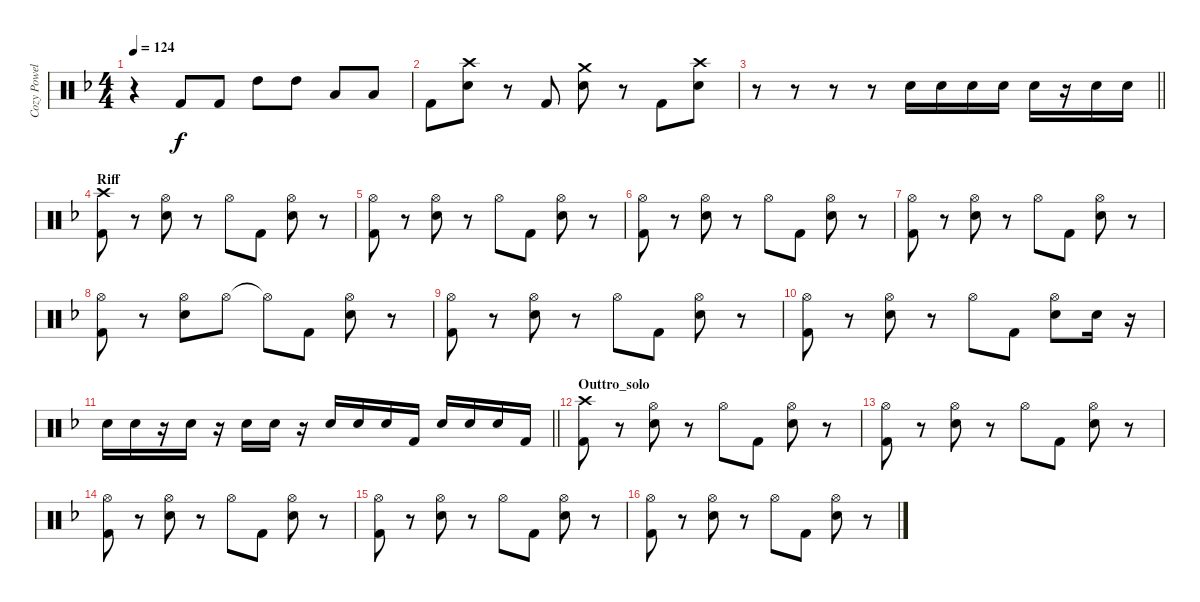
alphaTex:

\track ("Cozy Powell" "Cozy Powel") {instrument percussion}
\staff {score}
\articulation defaults
\ts (4 4)
\tempo 124
\clef neutral
\ks f
r.4{dy f} "Kick (hit) 2".8 "Kick (hit) 2".8 "High Tom (hit)".8 "High Tom (hit)".8 "Low Tom (hit)".8 "Low Tom (hit)".8 |
"Kick (hit) 2".8 ("Snare (hit) 2" "Crash high (hit)").8 r.8 "Kick (hit) 2".8 ("Snare (hit) 2" "Crash medium (hit)").8 r.8 "Kick (hit) 2".8 ("Snare (hit) 2" "Crash high (hit)").8 |
\barLineRight lightlight
r.8{volume 0} r.8 r.8 r.8 "Snare (hit) 2".16{volume 13} "Snare (hit) 2".16 "Snare (hit) 2".16 "Snare (hit) 2".16 "Snare (hit) 2".16 r.16 "Snare (hit) 2".16 "Snare (hit) 2".16 |
\section ("" "Riff")
("Crash high (hit)" "Kick (hit) 2").8 r.8 ("Hi-Hat (open)" "Snare (hit) 2").8 r.8 "Hi-Hat (open)".8 "Kick (hit) 2".8 ("Hi-Hat (open)" "Snare (hit) 2").8 r.8 |
("Hi-Hat (open)" "Kick (hit) 2").8 r.8 ("Hi-Hat (open)" "Snare (hit) 2").8 r.8 "Hi-Hat (open)".8 "Kick (hit) 2".8 ("Hi-Hat (open)" "Snare (hit) 2").8 r.8 |
("Hi-Hat (open)" "Kick (hit) 2").8 r.8 ("Hi-Hat (open)" "Snare (hit) 2").8 r.8 "Hi-Hat (open)".8 "Kick (hit) 2".8 ("Hi-Hat (open)" "Snare (hit) 2").8 r.8 |
("Hi-Hat (open)" "Kick (hit) 2").8 r.8 ("Hi-Hat (open)" "Snare (hit) 2").8 r.8 "Hi-Hat (open)".8 "Kick (hit) 2".8 ("Hi-Hat (open)" "Snare (hit) 2").8 r.8 |
("Hi-Hat (open)" "Kick (hit) 2").8 r.8 ("Hi-Hat (open)" "Snare (hit) 2").8 "Hi-Hat (open)".8 "Hi-Hat (open)"{t}.8 "Kick (hit) 2".8 ("Hi-Hat (open)" "Snare (hit) 2").8 r.8 |
("Hi-Hat (open)" "Kick (hit) 2").8 r.8 ("Hi-Hat (open)" "Snare (hit) 2").8 r.8 "Hi-Hat (open)".8 "Kick (hit) 2".8 ("Hi-Hat (open)" "Snare (hit) 2").8 r.8 |
("Hi-Hat (open)" "Kick (hit) 2").8 r.8 ("Hi-Hat (open)" "Snare (hit) 2").8 r.8 "Hi-Hat (open)".8 "Kick (hit) 2".8 ("Hi-Hat (open)" "Snare (hit) 2").8 "Snare (hit) 2".16 r.16 |
\barLineRight lightlight "Snare (hit) 2".16 "Snare (hit) 2".16
r.16 "Snare (hit) 2".16 r.16 "Snare (hit) 2".16 "Snare (hit) 2".16 r.16 "Snare (hit) 2".16 "Snare (hit) 2".16 "Snare (hit) 2".16 "Kick (hit) 2".16 "Snare (hit) 2".16 "Snare (hit) 2".16 "Snare (hit) 2".16 "Kick (hit) 2".16 |
\section ("" "Outtro_solo")
("Crash high (hit)" "Kick (hit) 2").8 r.8 ("Hi-Hat (open)" "Snare (hit) 2").8 r.8 "Hi-Hat (open)".8 "Kick (hit) 2".8 ("Hi-Hat (open)" "Snare (hit) 2").8 r.8 |
("Hi-Hat (open)" "Kick (hit) 2").8 r.8 ("Hi-Hat (open)" "Snare (hit) 2").8 r.8 "Hi-Hat (open)".8 "Kick (hit) 2".8 ("Hi-Hat (open)" "Snare (hit) 2").8 r.8 |
("Hi-Hat (open)" "Kick (hit) 2").8 r.8 ("Hi-Hat (open)" "Snare (hit) 2").8 r.8 "Hi-Hat (open)".8 "Kick (hit) 2".8 ("Hi-Hat (open)" "Snare (hit) 2").8 r.8 |
("Hi-Hat (open)" "Kick (hit) 2").8 r.8 ("Hi-Hat (open)" "Snare (hit) 2").8 r.8 "Hi-Hat (open)".8 "Kick (hit) 2".8 ("Hi-Hat (open)" "Snare (hit) 2").8 r.8 |
("Hi-Hat (open)" "Kick (hit) 2").8 r.8 ("Hi-Hat (open)" "Snare (hit) 2").8 r.8 "Hi-Hat (open)".8 "Kick (hit) 2".8 ("Hi-Hat (open)" "Snare (hit) 2").8 r.8
